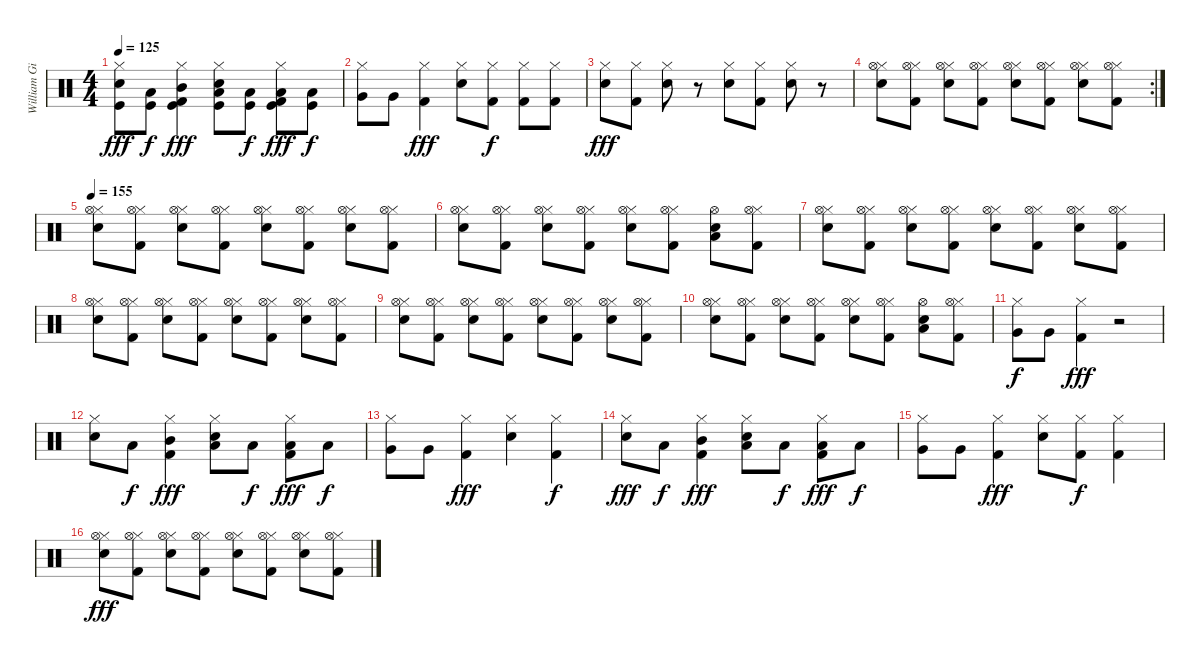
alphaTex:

\track ("William Gibson" "William Gi") {instrument percussion}
\staff {score}
\articulation defaults
\ts (4 4)
\tempo 125
\clef neutral
\ks c
("Hi-Hat (closed)" "Electric Snare (hit)" "Kick (hit)").8{dy fff} ("Low Floor Tom (hit)" "Kick (hit)").8{dy f} ("Hi-Hat (closed)" "Kick (hit) 2" "Mid Tom (hit)" "Kick (hit)").4{dy fff} ("Hi-Hat (closed)" "Electric Snare (hit)" "Low Tom (hit)" "Kick (hit)").8 ("Low Tom (hit)" "Kick (hit)").8{dy f} ("Hi-Hat (closed)" "Kick (hit) 2" "Low Floor Tom (hit)" "Kick (hit)").8{dy fff} ("Low Floor Tom (hit)" "Kick (hit)").8{dy f} |
("Hi-Hat (closed)" "Very Low Tom (hit)").8 "Very Low Tom (hit)".8 ("Hi-Hat (closed)" "Kick (hit) 2").4{dy fff} ("Hi-Hat (closed)" "Electric Snare (hit)").8 ("Hi-Hat (closed)" "Kick (hit) 2").8{dy f} ("Hi-Hat (closed)" "Kick (hit) 2").8 ("Hi-Hat (closed)" "Kick (hit) 2").8 |
("Hi-Hat (closed)" "Electric Snare (hit)").8{dy fff} ("Hi-Hat (closed)" "Kick (hit) 2").8 ("Hi-Hat (closed)" "Electric Snare (hit)").8 r.8 ("Hi-Hat (closed)" "Electric Snare (hit)").8 ("Hi-Hat (closed)" "Kick (hit) 2").8 ("Hi-Hat (closed)" "Electric Snare (hit)").8 r.8 |
\rc 2
("Hi-Hat (closed)" "Electric Snare (hit)" "Hi-Hat (open)").8 ("Hi-Hat (closed)" "Kick (hit) 2" "Hi-Hat (open)").8 ("Hi-Hat (closed)" "Electric Snare (hit)" "Hi-Hat (open)").8 ("Hi-Hat (closed)" "Kick (hit) 2" "Hi-Hat (open)").8 ("Hi-Hat (closed)" "Electric Snare (hit)" "Hi-Hat (open)").8 ("Hi-Hat (closed)" "Kick (hit) 2" "Hi-Hat (open)").8 ("Hi-Hat (closed)" "Electric Snare (hit)" "Hi-Hat (open)").8 ("Hi-Hat (closed)" "Kick (hit) 2" "Hi-Hat (open)").8 |
\tempo 155
("Hi-Hat (closed)" "Electric Snare (hit)" "Hi-Hat (open)").8 ("Hi-Hat (closed)" "Kick (hit) 2" "Hi-Hat (open)").8 ("Hi-Hat (closed)" "Electric Snare (hit)" "Hi-Hat (open)").8 ("Hi-Hat (closed)" "Kick (hit) 2" "Hi-Hat (open)").8 ("Hi-Hat (closed)" "Electric Snare (hit)" "Hi-Hat (open)").8 ("Hi-Hat (closed)" "Kick (hit) 2" "Hi-Hat (open)").8 ("Hi-Hat (closed)" "Electric Snare (hit)" "Hi-Hat (open)").8 ("Hi-Hat (closed)" "Kick (hit) 2" "Hi-Hat (open)").8 |
("Hi-Hat (closed)" "Electric Snare (hit)" "Hi-Hat (open)").8 ("Hi-Hat (closed)" "Kick (hit) 2" "Hi-Hat (open)").8 ("Hi-Hat (closed)" "Electric Snare (hit)" "Hi-Hat (open)").8 ("Hi-Hat (closed)" "Kick (hit) 2" "Hi-Hat (open)").8 ("Hi-Hat (closed)" "Electric Snare (hit)" "Hi-Hat (open)").8 ("Hi-Hat (closed)" "Kick (hit) 2" "Hi-Hat (open)").8 ("Low Tom (hit)" "Electric Snare (hit)" "Hi-Hat (open)").8 ("Hi-Hat (closed)" "Kick (hit) 2" "Hi-Hat (open)").8 |
("Hi-Hat (closed)" "Electric Snare (hit)" "Hi-Hat (open)").8 ("Hi-Hat (closed)" "Kick (hit) 2" "Hi-Hat (open)").8 ("Hi-Hat (closed)" "Electric Snare (hit)" "Hi-Hat (open)").8 ("Hi-Hat (closed)" "Kick (hit) 2" "Hi-Hat (open)").8 ("Hi-Hat (closed)" "Electric Snare (hit)" "Hi-Hat (open)").8 ("Hi-Hat (closed)" "Kick (hit) 2" "Hi-Hat (open)").8 ("Hi-Hat (closed)" "Electric Snare (hit)" "Hi-Hat (open)").8 ("Hi-Hat (closed)" "Kick (hit) 2" "Hi-Hat (open)").8 |
("Hi-Hat (closed)" "Electric Snare (hit)" "Hi-Hat (open)").8 ("Hi-Hat (closed)" "Kick (hit) 2" "Hi-Hat (open)").8 ("Hi-Hat (closed)" "Electric Snare (hit)" "Hi-Hat (open)").8 ("Hi-Hat (closed)" "Kick (hit) 2" "Hi-Hat (open)").8 ("Hi-Hat (closed)" "Electric Snare (hit)" "Hi-Hat (open)").8 ("Hi-Hat (closed)" "Kick (hit) 2" "Hi-Hat (open)").8 ("Hi-Hat (closed)" "Electric Snare (hit)" "Hi-Hat (open)").8 ("Hi-Hat (closed)" "Kick (hit) 2" "Hi-Hat (open)").8 |
("Hi-Hat (closed)" "Electric Snare (hit)" "Hi-Hat (open)").8 ("Hi-Hat (closed)" "Kick (hit) 2" "Hi-Hat (open)").8 ("Hi-Hat (closed)" "Electric Snare (hit)" "Hi-Hat (open)").8 ("Hi-Hat (closed)" "Kick (hit) 2" "Hi-Hat (open)").8 ("Hi-Hat (closed)" "Electric Snare (hit)" "Hi-Hat (open)").8 ("Hi-Hat (closed)" "Kick (hit) 2" "Hi-Hat (open)").8 ("Hi-Hat (closed)" "Electric Snare (hit)" "Hi-Hat (open)").8 ("Hi-Hat (closed)" "Kick (hit) 2" "Hi-Hat (open)").8 |
("Hi-Hat (closed)" "Electric Snare (hit)" "Hi-Hat (open)").8 ("Hi-Hat (closed)" "Kick (hit) 2" "Hi-Hat (open)").8 ("Hi-Hat (closed)" "Electric Snare (hit)" "Hi-Hat (open)").8 ("Hi-Hat (closed)" "Kick (hit) 2" "Hi-Hat (open)").8 ("Hi-Hat (closed)" "Electric Snare (hit)" "Hi-Hat (open)").8 ("Hi-Hat (closed)" "Kick (hit) 2" "Hi-Hat (open)").8 ("Low Tom (hit)" "Electric Snare (hit)" "Hi-Hat (open)").8 ("Hi-Hat (closed)" "Kick (hit) 2" "Hi-Hat (open)").8 |
("Hi-Hat (closed)" "Very Low Tom (hit)").8{dy f} "Very Low Tom (hit)".8 ("Hi-Hat (closed)" "Kick (hit) 2").4{dy fff} r.2 |
("Hi-Hat (closed)" "Electric Snare (hit)").8 "Low Floor Tom (hit)".8{dy f} ("Hi-Hat (closed)" "Kick (hit) 2" "Mid Tom (hit)").4{dy fff} ("Hi-Hat (closed)" "Electric Snare (hit)" "Low Tom (hit)").8 "Low Tom (hit)".8{dy f} ("Hi-Hat (closed)" "Kick (hit) 2" "Low Floor Tom (hit)").8{dy fff} "Low Floor Tom (hit)".8{dy f} |
("Hi-Hat (closed)" "Very Low Tom (hit)").8 "Very Low Tom (hit)".8 ("Hi-Hat (closed)" "Kick (hit) 2").4{dy fff} ("Hi-Hat (closed)" "Electric Snare (hit)").4 ("Hi-Hat (closed)" "Kick (hit) 2").4{dy f} |
("Hi-Hat (closed)" "Electric Snare (hit)").8{dy fff} "Low Floor Tom (hit)".8{dy f} ("Hi-Hat (closed)" "Kick (hit) 2" "Mid Tom (hit)").4{dy fff} ("Hi-Hat (closed)" "Electric Snare (hit)" "Low Tom (hit)").8 "Low Tom (hit)".8{dy f} ("Hi-Hat (closed)" "Kick (hit) 2" "Low Floor Tom (hit)").8{dy fff} "Low Floor Tom (hit)".8{dy f} |
("Hi-Hat (closed)" "Very Low Tom (hit)").8 "Very Low Tom (hit)".8 ("Hi-Hat (closed)" "Kick (hit) 2").4{dy fff} ("Hi-Hat (closed)" "Electric Snare (hit)").8 ("Hi-Hat (closed)" "Kick (hit) 2").8{dy f} ("Hi-Hat (closed)" "Kick (hit) 2").4 |
("Hi-Hat (closed)" "Electric Snare (hit)" "Hi-Hat (open)").8{dy fff} ("Hi-Hat (closed)" "Kick (hit) 2" "Hi-Hat (open)").8 ("Hi-Hat (closed)" "Electric Snare (hit)" "Hi-Hat (open)").8 ("Hi-Hat (closed)" "Kick (hit) 2" "Hi-Hat (open)").8 ("Hi-Hat (closed)" "Electric Snare (hit)" "Hi-Hat (open)").8 ("Hi-Hat (closed)" "Kick (hit) 2" "Hi-Hat (open)").8 ("Hi-Hat (closed)" "Electric Snare (hit)" "Hi-Hat (open)").8 ("Hi-Hat (closed)" "Kick (hit) 2" "Hi-Hat (open)").8
